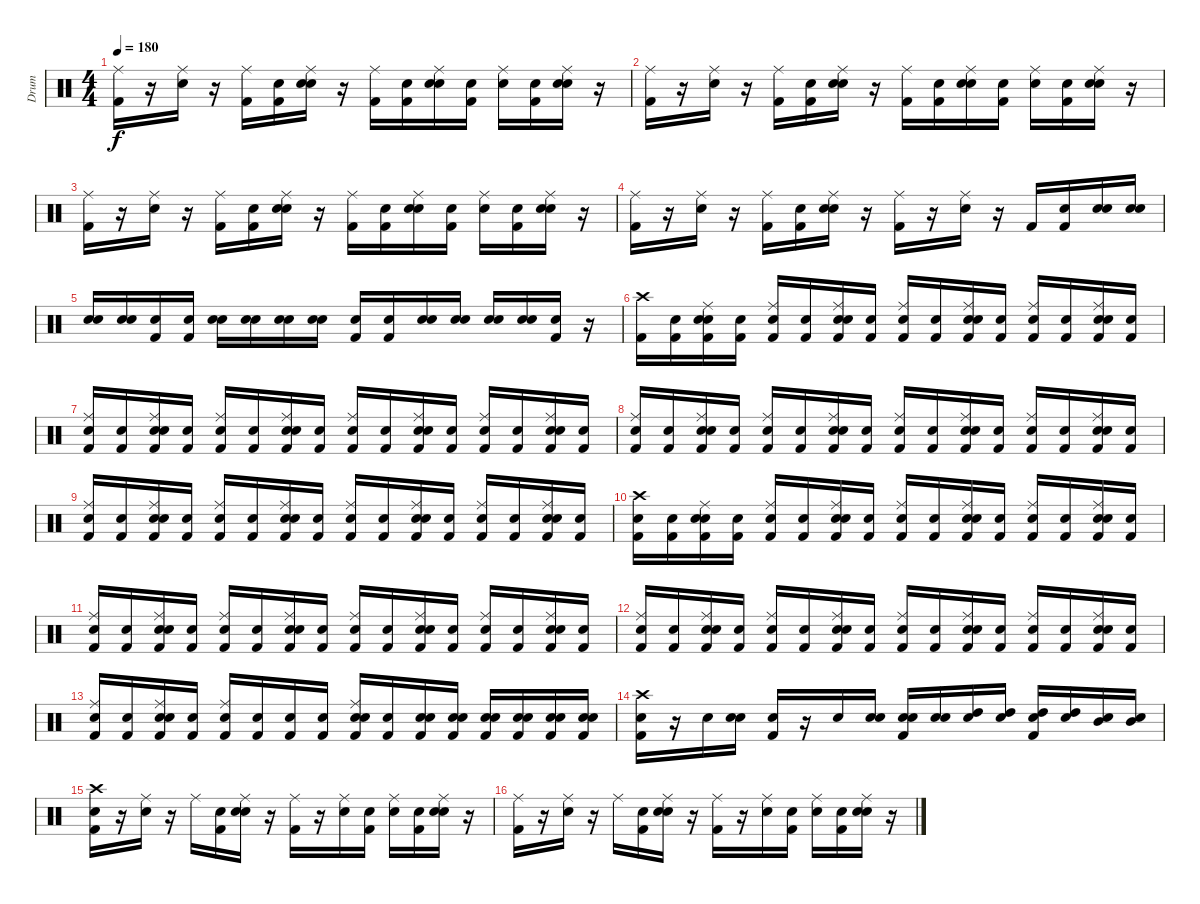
\track ("Drum" "Drum") {instrument percussion}
\staff {score}
\articulation defaults
\ts (4 4)
\tempo 180
\clef neutral
\ks c
("Kick (hit) 2" "Ride (middle)").16{dy f} r.16 ("Snare (hit) 2" "Ride (middle)").16 r.16 ("Kick (hit) 2" "Ride (middle)").16 ("Snare (hit)" "Kick (hit) 2").16 ("Snare (hit)" "Snare (hit) 2" "Ride (middle)").16 r.16 ("Kick (hit) 2" "Ride (middle)").16 ("Snare (hit)" "Kick (hit) 2").16 ("Snare (hit)" "Snare (hit) 2" "Ride (middle)").16 ("Snare (hit)" "Kick (hit) 2").16 ("Snare (hit)" "Ride (middle)").16 ("Snare (hit)" "Kick (hit) 2").16 ("Snare (hit)" "Snare (hit) 2" "Ride (middle)").16 r.16 |
("Kick (hit) 2" "Ride (middle)").16 r.16 ("Snare (hit) 2" "Ride (middle)").16 r.16 ("Kick (hit) 2" "Ride (middle)").16 ("Snare (hit)" "Kick (hit) 2").16 ("Snare (hit)" "Snare (hit) 2" "Ride (middle)").16 r.16 ("Kick (hit) 2" "Ride (middle)").16 ("Snare (hit)" "Kick (hit) 2").16 ("Snare (hit)" "Snare (hit) 2" "Ride (middle)").16 ("Snare (hit)" "Kick (hit) 2").16 ("Snare (hit)" "Ride (middle)").16 ("Snare (hit)" "Kick (hit) 2").16 ("Snare (hit)" "Snare (hit) 2" "Ride (middle)").16 r.16 |
("Kick (hit) 2" "Ride (middle)").16 r.16 ("Snare (hit) 2" "Ride (middle)").16 r.16 ("Kick (hit) 2" "Ride (middle)").16 ("Snare (hit)" "Kick (hit) 2").16 ("Snare (hit)" "Snare (hit) 2" "Ride (middle)").16 r.16 ("Kick (hit) 2" "Ride (middle)").16 ("Snare (hit)" "Kick (hit) 2").16 ("Snare (hit)" "Snare (hit) 2" "Ride (middle)").16 ("Snare (hit)" "Kick (hit) 2").16 ("Snare (hit)" "Ride (middle)").16 ("Snare (hit)" "Kick (hit) 2").16 ("Snare (hit)" "Snare (hit) 2" "Ride (middle)").16 r.16 |
("Kick (hit) 2" "Ride (middle)").16 r.16 ("Snare (hit) 2" "Ride (middle)").16 r.16 ("Kick (hit) 2" "Ride (middle)").16 ("Snare (hit)" "Kick (hit) 2").16 ("Snare (hit)" "Snare (hit) 2" "Ride (middle)").16 r.16 ("Kick (hit) 2" "Ride (middle)").16 r.16 ("Snare (hit) 2" "Ride (middle)").16 r.16 "Kick (hit) 2".16 ("Snare (hit)" "Kick (hit) 2").16 ("Snare (hit)" "Snare (hit) 2").16 ("Snare (hit)" "Snare (hit) 2").16 |
("Snare (hit)" "Snare (hit) 2").16 ("Snare (hit)" "Snare (hit) 2").16 ("Snare (hit)" "Kick (hit) 2").16 ("Snare (hit)" "Kick (hit) 2").16 ("Snare (hit)" "Snare (hit) 2").16 ("Snare (hit)" "Snare (hit) 2").16 ("Snare (hit)" "Snare (hit) 2").16 ("Snare (hit)" "Snare (hit) 2").16 ("Snare (hit)" "Kick (hit) 2").16 ("Snare (hit)" "Kick (hit) 2").16 ("Snare (hit)" "Snare (hit) 2").16 ("Snare (hit)" "Snare (hit) 2").16 ("Snare (hit)" "Snare (hit) 2").16 ("Snare (hit)" "Snare (hit) 2").16 ("Snare (hit)" "Kick (hit) 2").16 r.16 |
("Kick (hit) 2" "Crash high (hit)").16 ("Snare (hit)" "Kick (hit) 2").16 ("Snare (hit)" "Snare (hit) 2" "Kick (hit) 2" "Ride (middle)").16 ("Snare (hit)" "Kick (hit) 2").16 ("Snare (hit)" "Kick (hit) 2" "Ride (middle)").16 ("Snare (hit)" "Kick (hit) 2").16 ("Snare (hit)" "Snare (hit) 2" "Kick (hit) 2" "Ride (middle)").16 ("Snare (hit)" "Kick (hit) 2").16 ("Snare (hit)" "Kick (hit) 2" "Ride (middle)").16 ("Snare (hit)" "Kick (hit) 2").16 ("Snare (hit)" "Kick (hit) 2" "Ride (middle)" "Snare (hit) 2").16 ("Snare (hit)" "Kick (hit) 2").16 ("Snare (hit)" "Kick (hit) 2" "Ride (middle)").16 ("Snare (hit)" "Kick (hit) 2").16 ("Snare (hit)" "Snare (hit) 2" "Kick (hit) 2" "Ride (middle)").16 ("Snare (hit)" "Kick (hit) 2").16 |
("Snare (hit)" "Kick (hit) 2" "Ride (middle)").16 ("Snare (hit)" "Kick (hit) 2").16 ("Snare (hit)" "Snare (hit) 2" "Kick (hit) 2" "Ride (middle)").16 ("Snare (hit)" "Kick (hit) 2").16 ("Snare (hit)" "Kick (hit) 2" "Ride (middle)").16 ("Snare (hit)" "Kick (hit) 2").16 ("Snare (hit)" "Snare (hit) 2" "Kick (hit) 2" "Ride (middle)").16 ("Snare (hit)" "Kick (hit) 2").16 ("Snare (hit)" "Kick (hit) 2" "Ride (middle)").16 ("Snare (hit)" "Kick (hit) 2").16 ("Snare (hit)" "Snare (hit) 2" "Kick (hit) 2" "Ride (middle)").16 ("Snare (hit)" "Kick (hit) 2").16 ("Snare (hit)" "Kick (hit) 2" "Ride (middle)").16 ("Snare (hit)" "Kick (hit) 2").16 ("Snare (hit)" "Snare (hit) 2" "Kick (hit) 2" "Ride (middle)").16 ("Snare (hit)" "Kick (hit) 2").16 |
("Snare (hit)" "Kick (hit) 2" "Ride (middle)").16 ("Snare (hit)" "Kick (hit) 2").16 ("Snare (hit)" "Snare (hit) 2" "Kick (hit) 2" "Ride (middle)").16 ("Snare (hit)" "Kick (hit) 2").16 ("Snare (hit)" "Kick (hit) 2" "Ride (middle)").16 ("Snare (hit)" "Kick (hit) 2").16 ("Snare (hit)" "Snare (hit) 2" "Kick (hit) 2" "Ride (middle)").16 ("Snare (hit)" "Kick (hit) 2").16 ("Snare (hit)" "Kick (hit) 2" "Ride (middle)").16 ("Snare (hit)" "Kick (hit) 2").16 ("Snare (hit)" "Snare (hit) 2" "Kick (hit) 2" "Ride (middle)").16 ("Snare (hit)" "Kick (hit) 2").16 ("Snare (hit)" "Kick (hit) 2" "Ride (middle)").16 ("Snare (hit)" "Kick (hit) 2").16 ("Snare (hit)" "Snare (hit) 2" "Kick (hit) 2" "Ride (middle)").16 ("Snare (hit)" "Kick (hit) 2").16 |
("Snare (hit)" "Kick (hit) 2" "Ride (middle)").16 ("Snare (hit)" "Kick (hit) 2").16 ("Snare (hit)" "Snare (hit) 2" "Kick (hit) 2" "Ride (middle)").16 ("Snare (hit)" "Kick (hit) 2").16 ("Snare (hit)" "Kick (hit) 2" "Ride (middle)").16 ("Snare (hit)" "Kick (hit) 2").16 ("Snare (hit)" "Snare (hit) 2" "Kick (hit) 2" "Ride (middle)").16 ("Snare (hit)" "Kick (hit) 2").16 ("Snare (hit)" "Kick (hit) 2" "Ride (middle)").16 ("Snare (hit)" "Kick (hit) 2").16 ("Snare (hit)" "Snare (hit) 2" "Kick (hit) 2" "Ride (middle)").16 ("Snare (hit)" "Kick (hit) 2").16 ("Snare (hit)" "Kick (hit) 2" "Ride (middle)").16 ("Snare (hit)" "Kick (hit) 2").16 ("Snare (hit)" "Snare (hit) 2" "Kick (hit) 2" "Ride (middle)").16 ("Snare (hit)" "Kick (hit) 2").16 |
("Snare (hit)" "Kick (hit) 2" "Crash high (hit)").16 ("Snare (hit)" "Kick (hit) 2").16 ("Snare (hit)" "Snare (hit) 2" "Kick (hit) 2" "Ride (middle)").16 ("Snare (hit)" "Kick (hit) 2").16 ("Snare (hit)" "Kick (hit) 2" "Ride (middle)").16 ("Snare (hit)" "Kick (hit) 2").16 ("Snare (hit)" "Snare (hit) 2" "Kick (hit) 2" "Ride (middle)").16 ("Snare (hit)" "Kick (hit) 2").16 ("Snare (hit)" "Kick (hit) 2" "Ride (middle)").16 ("Snare (hit)" "Kick (hit) 2").16 ("Snare (hit)" "Kick (hit) 2" "Ride (middle)" "Snare (hit) 2").16 ("Snare (hit)" "Kick (hit) 2").16 ("Snare (hit)" "Kick (hit) 2" "Ride (middle)").16 ("Snare (hit)" "Kick (hit) 2").16 ("Snare (hit)" "Snare (hit) 2" "Kick (hit) 2" "Ride (middle)").16 ("Snare (hit)" "Kick (hit) 2").16 |
("Snare (hit)" "Kick (hit) 2" "Ride (middle)").16 ("Snare (hit)" "Kick (hit) 2").16 ("Snare (hit)" "Snare (hit) 2" "Kick (hit) 2" "Ride (middle)").16 ("Snare (hit)" "Kick (hit) 2").16 ("Snare (hit)" "Kick (hit) 2" "Ride (middle)").16 ("Snare (hit)" "Kick (hit) 2").16 ("Snare (hit)" "Snare (hit) 2" "Kick (hit) 2" "Ride (middle)").16 ("Snare (hit)" "Kick (hit) 2").16 ("Snare (hit)" "Kick (hit) 2" "Ride (middle)").16 ("Snare (hit)" "Kick (hit) 2").16 ("Snare (hit)" "Snare (hit) 2" "Kick (hit) 2" "Ride (middle)").16 ("Snare (hit)" "Kick (hit) 2").16 ("Snare (hit)" "Kick (hit) 2" "Ride (middle)").16 ("Snare (hit)" "Kick (hit) 2").16 ("Snare (hit)" "Snare (hit) 2" "Kick (hit) 2" "Ride (middle)").16 ("Snare (hit)" "Kick (hit) 2").16 |
("Snare (hit)" "Kick (hit) 2" "Ride (middle)").16 ("Snare (hit)" "Kick (hit) 2").16 ("Snare (hit)" "Snare (hit) 2" "Kick (hit) 2" "Ride (middle)").16 ("Snare (hit)" "Kick (hit) 2").16 ("Snare (hit)" "Kick (hit) 2" "Ride (middle)").16 ("Snare (hit)" "Kick (hit) 2").16 ("Snare (hit)" "Snare (hit) 2" "Kick (hit) 2" "Ride (middle)").16 ("Snare (hit)" "Kick (hit) 2").16 ("Snare (hit)" "Kick (hit) 2" "Ride (middle)").16 ("Snare (hit)" "Kick (hit) 2").16 ("Snare (hit)" "Snare (hit) 2" "Kick (hit) 2" "Ride (middle)").16 ("Snare (hit)" "Kick (hit) 2").16 ("Snare (hit)" "Kick (hit) 2" "Ride (middle)").16 ("Snare (hit)" "Kick (hit) 2").16 ("Snare (hit)" "Snare (hit) 2" "Kick (hit) 2" "Ride (middle)").16 ("Snare (hit)" "Kick (hit) 2").16 |
("Snare (hit)" "Ride (middle)" "Kick (hit) 2").16 ("Snare (hit)" "Kick (hit) 2").16 ("Snare (hit)" "Snare (hit) 2" "Ride (middle)" "Kick (hit) 2").16 ("Snare (hit)" "Kick (hit) 2").16 ("Snare (hit)" "Ride (middle)" "Kick (hit) 2").16 ("Snare (hit)" "Kick (hit) 2").16 ("Snare (hit)" "Kick (hit) 2").16 ("Snare (hit)" "Kick (hit) 2").16 ("Snare (hit)" "Snare (hit) 2" "Ride (middle)" "Kick (hit) 2").16 ("Snare (hit)" "Kick (hit) 2").16 ("Snare (hit)" "Snare (hit) 2" "Kick (hit) 2").16 ("Snare (hit)" "Snare (hit) 2" "Kick (hit) 2").16 ("Snare (hit)" "Snare (hit) 2" "Kick (hit) 2").16 ("Snare (hit)" "Snare (hit) 2" "Kick (hit) 2").16 ("Snare (hit)" "Snare (hit) 2" "Kick (hit) 2").16 ("Snare (hit)" "Snare (hit) 2" "Kick (hit) 2").16 |
("Snare (hit)" "Kick (hit) 2" "Crash high (hit)").16 r.16 "Snare (hit) 2".16 ("Snare (hit)" "Snare (hit) 2").16 ("Snare (hit)" "Kick (hit) 2").16 r.16 "Snare (hit) 2".16 ("Snare (hit)" "Snare (hit) 2").16 ("Snare (hit)" "Snare (hit) 2" "Kick (hit) 2").16 ("Snare (hit)" "Snare (hit) 2").16 ("Snare (hit)" "High Tom (hit)").16 ("Snare (hit)" "High Tom (hit)").16 ("Snare (hit)" "High Tom (hit)" "Kick (hit) 2").16 ("Snare (hit)" "High Tom (hit)").16 ("Snare (hit)" "Mid Tom (hit)").16 ("Snare (hit)" "Mid Tom (hit)").16 |
("Snare (hit)" "Crash high (hit)" "Kick (hit) 2").16 r.16 ("Snare (hit) 2" "Ride (middle)").16 r.16 "Ride (middle)".16 ("Snare (hit)" "Kick (hit) 2").16 ("Snare (hit)" "Snare (hit) 2" "Ride (middle)").16 r.16 ("Kick (hit) 2" "Ride (middle)").16 r.16 ("Snare (hit) 2" "Ride (middle)").16 ("Snare (hit)" "Kick (hit) 2").16 ("Snare (hit)" "Ride (middle)").16 ("Snare (hit)" "Kick (hit) 2").16 ("Snare (hit)" "Snare (hit) 2" "Ride (middle)").16 r.16 |
("Kick (hit) 2" "Ride (middle)").16 r.16 ("Snare (hit) 2" "Ride (middle)").16 r.16 "Ride (middle)".16 ("Snare (hit)" "Kick (hit) 2").16 ("Snare (hit)" "Snare (hit) 2" "Ride (middle)").16 r.16 ("Kick (hit) 2" "Ride (middle)").16 r.16 ("Snare (hit) 2" "Ride (middle)").16 ("Snare (hit)" "Kick (hit) 2").16 ("Snare (hit)" "Ride (middle)").16 ("Snare (hit)" "Kick (hit) 2").16 ("Snare (hit)" "Snare (hit) 2" "Ride (middle)").16 r.16
